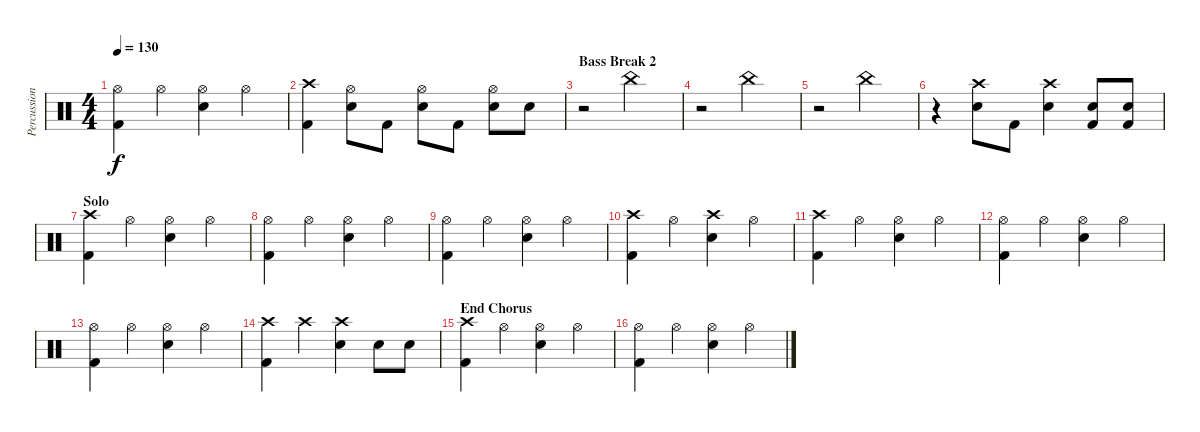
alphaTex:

\track ("Percussion" "Percussion") {instrument percussion}
\staff {score}
\articulation defaults
\ts (4 4)
\tempo 130
\clef neutral
\ks c
("Hi-Hat (open)" "Kick (hit) 2").4{dy f} "Hi-Hat (open)".4 ("Hi-Hat (open)" "Snare (hit) 2").4 "Hi-Hat (open)".4 |
("Crash high (hit)" "Kick (hit) 2").4 ("Hi-Hat (open)" "Snare (hit) 2").8 "Kick (hit) 2".8 ("Hi-Hat (open)" "Snare (hit) 2").8 "Kick (hit) 2".8 ("Hi-Hat (open)" "Snare (hit) 2").8 "Snare (hit) 2".8 |
\section ("" "Bass Break 2")
r.2 "China (hit)".2 |
r.2 "China (hit)".2 |
r.2 "China (hit)".2 |
r.4 ("Crash high (hit)" "Snare (hit) 2").8 "Kick (hit) 2".8 ("Crash high (hit)" "Snare (hit) 2").4 ("Snare (hit) 2" "Kick (hit) 2").8 ("Snare (hit) 2" "Kick (hit) 2").8 |
\section ("" "Solo")
("Crash high (hit)" "Kick (hit) 2").4 "Hi-Hat (open)".4 ("Hi-Hat (open)" "Snare (hit) 2").4 "Hi-Hat (open)".4 |
("Hi-Hat (open)" "Kick (hit) 2").4 "Hi-Hat (open)".4 ("Hi-Hat (open)" "Snare (hit) 2").4 "Hi-Hat (open)".4 |
("Hi-Hat (open)" "Kick (hit) 2").4 "Hi-Hat (open)".4 ("Hi-Hat (open)" "Snare (hit) 2").4 "Hi-Hat (open)".4 |
("Crash high (hit)" "Kick (hit) 2").4 "Hi-Hat (open)".4 ("Crash high (hit)" "Snare (hit) 2").4 "Hi-Hat (open)".4 |
("Crash high (hit)" "Kick (hit) 2").4 "Hi-Hat (open)".4 ("Hi-Hat (open)" "Snare (hit) 2").4 "Hi-Hat (open)".4 |
("Hi-Hat (open)" "Kick (hit) 2").4 "Hi-Hat (open)".4 ("Hi-Hat (open)" "Snare (hit) 2").4 "Hi-Hat (open)".4 |
("Hi-Hat (open)" "Kick (hit) 2").4 "Hi-Hat (open)".4 ("Hi-Hat (open)" "Snare (hit) 2").4 "Hi-Hat (open)".4 |
("Crash high (hit)" "Kick (hit) 2").4 "Crash high (hit)".4 ("Crash high (hit)" "Snare (hit) 2").4 "Snare (hit) 2".8 "Snare (hit) 2".8 |
\section ("" "End Chorus")
("Crash high (hit)" "Kick (hit) 2").4 "Hi-Hat (open)".4 ("Hi-Hat (open)" "Snare (hit) 2").4 "Hi-Hat (open)".4 |
("Hi-Hat (open)" "Kick (hit) 2").4 "Hi-Hat (open)".4 ("Hi-Hat (open)" "Snare (hit) 2").4 "Hi-Hat (open)".4
